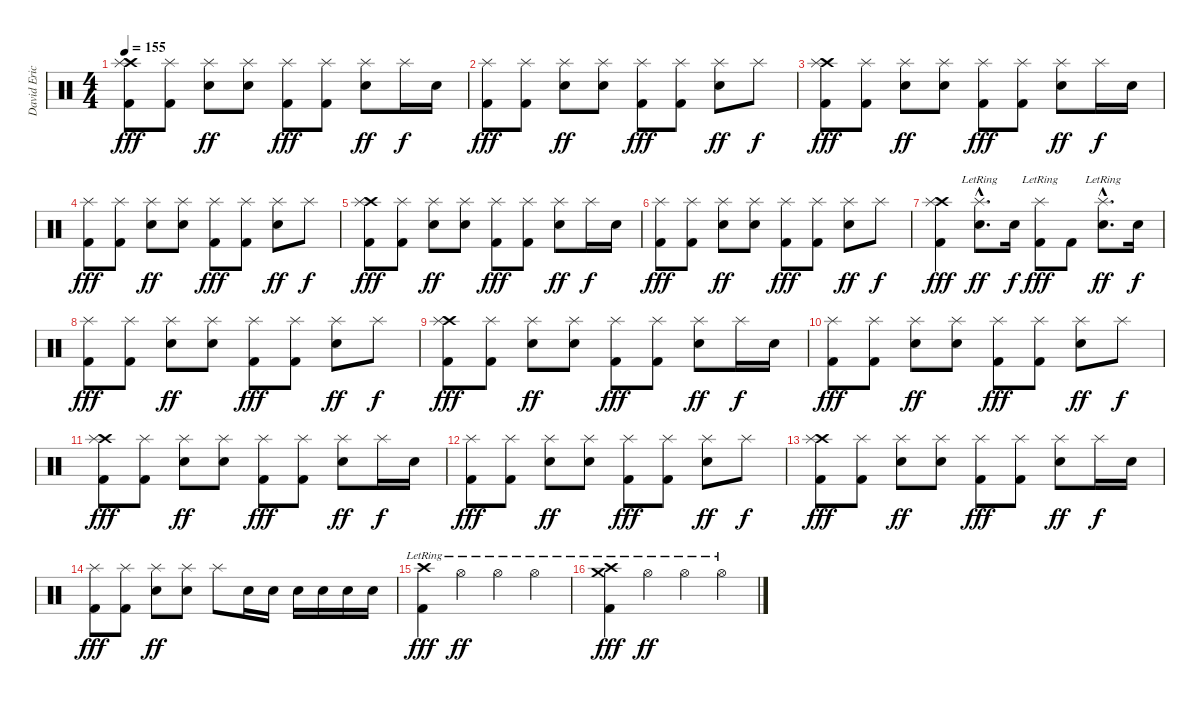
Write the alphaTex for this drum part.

\track ("David Eric Grohl" "David Eric") {instrument percussion}
\staff {score}
\articulation defaults
\ts (4 4)
\tempo 155
\clef neutral
\ks c
("Crash high (hit)" "Splash (hit)" "Kick (hit) 2").8{dy fff} ("Splash (hit)" "Kick (hit) 2").8 ("Splash (hit)" "Electric Snare (hit)").8{dy ff} ("Splash (hit)" "Electric Snare (hit)").8 ("Splash (hit)" "Kick (hit) 2").8{dy fff} ("Splash (hit)" "Kick (hit) 2").8 ("Splash (hit)" "Electric Snare (hit)").8{dy ff} "Splash (hit)".16{dy f} "Electric Snare (hit)".16 |
("Splash (hit)" "Kick (hit) 2").8{dy fff} ("Splash (hit)" "Kick (hit) 2").8 ("Splash (hit)" "Electric Snare (hit)").8{dy ff} ("Splash (hit)" "Electric Snare (hit)").8 ("Splash (hit)" "Kick (hit) 2").8{dy fff} ("Splash (hit)" "Kick (hit) 2").8 ("Splash (hit)" "Electric Snare (hit)").8{dy ff} "Splash (hit)".8{dy f} |
("Crash high (hit)" "Splash (hit)" "Kick (hit) 2").8{dy fff} ("Splash (hit)" "Kick (hit) 2").8 ("Splash (hit)" "Electric Snare (hit)").8{dy ff} ("Splash (hit)" "Electric Snare (hit)").8 ("Splash (hit)" "Kick (hit) 2").8{dy fff} ("Splash (hit)" "Kick (hit) 2").8 ("Splash (hit)" "Electric Snare (hit)").8{dy ff} "Splash (hit)".16{dy f} "Electric Snare (hit)".16 |
("Splash (hit)" "Kick (hit) 2").8{dy fff} ("Splash (hit)" "Kick (hit) 2").8 ("Splash (hit)" "Electric Snare (hit)").8{dy ff} ("Splash (hit)" "Electric Snare (hit)").8 ("Splash (hit)" "Kick (hit) 2").8{dy fff} ("Splash (hit)" "Kick (hit) 2").8 ("Splash (hit)" "Electric Snare (hit)").8{dy ff} "Splash (hit)".8{dy f} |
("Crash high (hit)" "Splash (hit)" "Kick (hit) 2").8{dy fff} ("Splash (hit)" "Kick (hit) 2").8 ("Splash (hit)" "Electric Snare (hit)").8{dy ff} ("Splash (hit)" "Electric Snare (hit)").8 ("Splash (hit)" "Kick (hit) 2").8{dy fff} ("Splash (hit)" "Kick (hit) 2").8 ("Splash (hit)" "Electric Snare (hit)").8{dy ff} "Splash (hit)".16{dy f} "Electric Snare (hit)".16 |
("Splash (hit)" "Kick (hit) 2").8{dy fff} ("Splash (hit)" "Kick (hit) 2").8 ("Splash (hit)" "Electric Snare (hit)").8{dy ff} ("Splash (hit)" "Electric Snare (hit)").8 ("Splash (hit)" "Kick (hit) 2").8{dy fff} ("Splash (hit)" "Kick (hit) 2").8 ("Splash (hit)" "Electric Snare (hit)").8{dy ff} "Splash (hit)".8{dy f} |
("Crash high (hit)" "Splash (hit)" "Kick (hit) 2").4{dy fff} ("Splash (hit)"{hac lr} "Electric Snare (hit)"{hac}).8{d dy ff} "Electric Snare (hit)".16{dy f} ("Splash (hit)"{lr} "Kick (hit) 2").8{dy fff} "Kick (hit) 2".8 ("Splash (hit)"{hac lr} "Electric Snare (hit)"{hac}).8{d dy ff} "Electric Snare (hit)".16{dy f} |
("Splash (hit)" "Kick (hit) 2").8{dy fff} ("Splash (hit)" "Kick (hit) 2").8 ("Splash (hit)" "Electric Snare (hit)").8{dy ff} ("Splash (hit)" "Electric Snare (hit)").8 ("Splash (hit)" "Kick (hit) 2").8{dy fff} ("Splash (hit)" "Kick (hit) 2").8 ("Splash (hit)" "Electric Snare (hit)").8{dy ff} "Splash (hit)".8{dy f} |
("Crash high (hit)" "Splash (hit)" "Kick (hit) 2").8{dy fff} ("Splash (hit)" "Kick (hit) 2").8 ("Splash (hit)" "Electric Snare (hit)").8{dy ff} ("Splash (hit)" "Electric Snare (hit)").8 ("Splash (hit)" "Kick (hit) 2").8{dy fff} ("Splash (hit)" "Kick (hit) 2").8 ("Splash (hit)" "Electric Snare (hit)").8{dy ff} "Splash (hit)".16{dy f} "Electric Snare (hit)".16 |
("Splash (hit)" "Kick (hit) 2").8{dy fff} ("Splash (hit)" "Kick (hit) 2").8 ("Splash (hit)" "Electric Snare (hit)").8{dy ff} ("Splash (hit)" "Electric Snare (hit)").8 ("Splash (hit)" "Kick (hit) 2").8{dy fff} ("Splash (hit)" "Kick (hit) 2").8 ("Splash (hit)" "Electric Snare (hit)").8{dy ff} "Splash (hit)".8{dy f} |
("Crash high (hit)" "Splash (hit)" "Kick (hit) 2").8{dy fff} ("Splash (hit)" "Kick (hit) 2").8 ("Splash (hit)" "Electric Snare (hit)").8{dy ff} ("Splash (hit)" "Electric Snare (hit)").8 ("Splash (hit)" "Kick (hit) 2").8{dy fff} ("Splash (hit)" "Kick (hit) 2").8 ("Splash (hit)" "Electric Snare (hit)").8{dy ff} "Splash (hit)".16{dy f} "Electric Snare (hit)".16 |
("Splash (hit)" "Kick (hit) 2").8{dy fff} ("Splash (hit)" "Kick (hit) 2").8 ("Splash (hit)" "Electric Snare (hit)").8{dy ff} ("Splash (hit)" "Electric Snare (hit)").8 ("Splash (hit)" "Kick (hit) 2").8{dy fff} ("Splash (hit)" "Kick (hit) 2").8 ("Splash (hit)" "Electric Snare (hit)").8{dy ff} "Splash (hit)".8{dy f} |
("Crash high (hit)" "Splash (hit)" "Kick (hit) 2").8{dy fff} ("Splash (hit)" "Kick (hit) 2").8 ("Splash (hit)" "Electric Snare (hit)").8{dy ff} ("Splash (hit)" "Electric Snare (hit)").8 ("Splash (hit)" "Kick (hit) 2").8{dy fff} ("Splash (hit)" "Kick (hit) 2").8 ("Splash (hit)" "Electric Snare (hit)").8{dy ff} "Splash (hit)".16{dy f} "Electric Snare (hit)".16 |
("Splash (hit)" "Kick (hit) 2").8{dy fff} ("Splash (hit)" "Kick (hit) 2").8 ("Splash (hit)" "Electric Snare (hit)").8{dy ff} ("Splash (hit)" "Electric Snare (hit)").8 "Splash (hit)".8 "Electric Snare (hit)".16 "Electric Snare (hit)".16 "Electric Snare (hit)".16 "Electric Snare (hit)".16 "Electric Snare (hit)".16 "Electric Snare (hit)".16 |
("Crash high (hit)"{lr} "Kick (hit) 2").4{dy fff} "Hi-Hat (open)"{lr}.4{dy ff} "Hi-Hat (open)"{lr}.4 "Hi-Hat (open)"{lr}.4 |
("Crash medium (hit)"{lr} "Crash high (hit)"{lr} "Kick (hit) 2").4{dy fff} "Hi-Hat (open)"{lr}.4{dy ff} "Hi-Hat (open)"{lr}.4 "Hi-Hat (open)"{lr}.4
